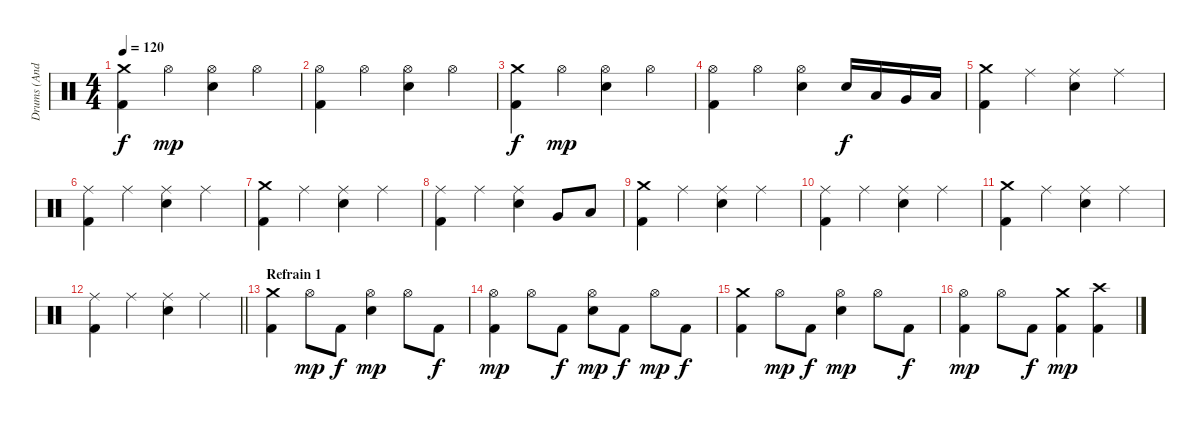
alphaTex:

\track ("Drums (Andy C)" "Drums (And") {instrument percussion}
\staff
\articulation defaults
\ts (4 4)
\tempo 120
\clef neutral
\ks c
("Crash medium (hit)" "Kick (hit) 2").4{dy f} "Hi-Hat (open)".4{dy mp} ("Hi-Hat (open)" "Electric Snare (hit)").4 "Hi-Hat (open)".4 |
("Hi-Hat (open)" "Kick (hit) 2").4 "Hi-Hat (open)".4 ("Hi-Hat (open)" "Electric Snare (hit)").4 "Hi-Hat (open)".4 |
("Crash medium (hit)" "Kick (hit) 2").4{dy f} "Hi-Hat (open)".4{dy mp} ("Hi-Hat (open)" "Electric Snare (hit)").4 "Hi-Hat (open)".4 |
("Hi-Hat (open)" "Kick (hit) 2").4 "Hi-Hat (open)".4 ("Hi-Hat (open)" "Electric Snare (hit)").4 "Electric Snare (hit)".16{dy f} "Low Tom (hit)".16 "Very Low Tom (hit)".16 "Low Floor Tom (hit)".16 |
("Crash medium (hit)" "Kick (hit) 2").4 "Ride (middle)".4 ("Ride (middle)" "Electric Snare (hit)").4 "Ride (middle)".4 |
("Ride (middle)" "Kick (hit) 2").4 "Ride (middle)".4 ("Ride (middle)" "Electric Snare (hit)").4 "Ride (middle)".4 |
("Crash medium (hit)" "Kick (hit) 2").4 "Ride (middle)".4 ("Ride (middle)" "Electric Snare (hit)").4 "Ride (middle)".4 |
("Ride (middle)" "Kick (hit) 2").4 "Ride (middle)".4 ("Ride (middle)" "Electric Snare (hit)").4 "Very Low Tom (hit)".8 "Low Tom (hit)".8 |
("Crash medium (hit)" "Kick (hit) 2").4 "Ride (middle)".4 ("Ride (middle)" "Electric Snare (hit)").4 "Ride (middle)".4 |
("Ride (middle)" "Kick (hit) 2").4 "Ride (middle)".4 ("Ride (middle)" "Electric Snare (hit)").4 "Ride (middle)".4 |
("Crash medium (hit)" "Kick (hit) 2").4 "Ride (middle)".4 ("Ride (middle)" "Electric Snare (hit)").4 "Ride (middle)".4 |
\barLineRight lightlight
("Ride (middle)" "Kick (hit) 2").4 "Ride (middle)".4 ("Ride (middle)" "Electric Snare (hit)").4 "Ride (middle)".4 |
\section ("" "Refrain 1")
("Crash medium (hit)" "Kick (hit) 2").4 "Hi-Hat (open)".8{dy mp} "Kick (hit) 2".8{dy f} ("Hi-Hat (open)" "Electric Snare (hit)").4{dy mp} "Hi-Hat (open)".8 "Kick (hit) 2".8{dy f} |
("Hi-Hat (open)" "Kick (hit) 2").4{dy mp} "Hi-Hat (open)".8 "Kick (hit) 2".8{dy f} ("Hi-Hat (open)" "Electric Snare (hit)").8{dy mp} "Kick (hit) 2".8{dy f} "Hi-Hat (open)".8{dy mp} "Kick (hit) 2".8{dy f} |
("Crash medium (hit)" "Kick (hit) 2").4 "Hi-Hat (open)".8{dy mp} "Kick (hit) 2".8{dy f} ("Hi-Hat (open)" "Electric Snare (hit)").4{dy mp} "Hi-Hat (open)".8 "Kick (hit) 2".8{dy f} |
("Hi-Hat (open)" "Kick (hit) 2").4{dy mp} "Hi-Hat (open)".8 "Kick (hit) 2".8{dy f} ("Crash medium (hit)" "Kick (hit) 2").4{dy mp} ("Crash high (hit)" "Kick (hit) 2").4
